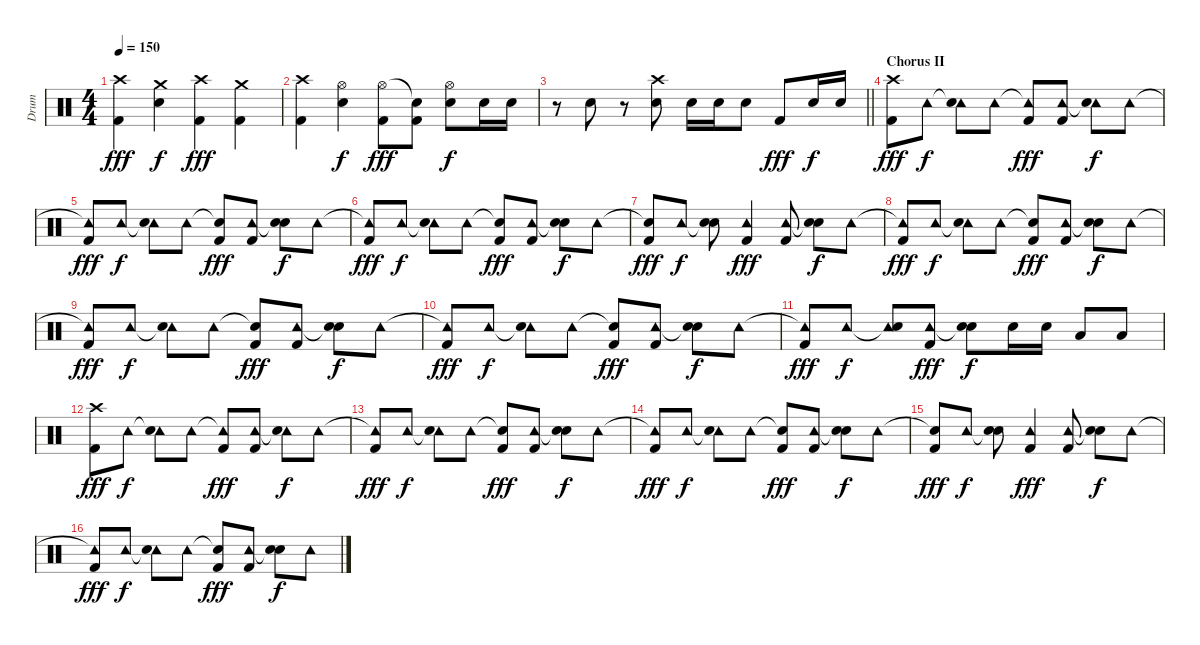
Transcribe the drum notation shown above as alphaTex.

\track ("Drum" "Drum") {instrument percussion}
\staff {score}
\articulation defaults
\ts (4 4)
\tempo 150
\clef neutral
\ks c
("Crash high (hit)" "Kick (hit) 2").4{dy fff} ("Crash medium (hit)" "Snare (hit) 2").4{dy f} ("Crash high (hit)" "Kick (hit) 2").4{dy fff} ("Crash medium (hit)" "Kick (hit) 2").4 |
("Crash high (hit)" "Kick (hit) 2").4 ("Hi-Hat (open)" "Snare (hit) 2").4{dy f} ("Hi-Hat (open)" "Kick (hit) 2").8{dy fff} ("Snare (hit)"{t} "Kick (hit) 2").8 ("Hi-Hat (open)" "Snare (hit) 2").8{dy f} "Snare (hit) 2".16 "Snare (hit) 2".16 |
\barLineRight lightlight
r.8 "Snare (hit) 2".8 r.8 ("Crash high (hit)" "Snare (hit) 2").8 "Snare (hit) 2".16 "Snare (hit) 2".16 "Snare (hit) 2".8 "Kick (hit) 2".8{dy fff} "Snare (hit) 2".16{dy f} "Snare (hit) 2".16 |
\section ("" "Chorus II")
("Crash high (hit)" "Kick (hit) 2").8{dy fff} "Tambourine (hit)".8{dy f} ("Tambourine (hit)"{t} "Snare (hit) 2").8 "Tambourine (hit)".8 ("Tambourine (hit)"{t} "Kick (hit) 2").8{dy fff} ("Tambourine (hit)" "Kick (hit) 2").8 ("Tambourine (hit)"{t} "Snare (hit) 2").8{dy f} "Tambourine (hit)".8 |
("Tambourine (hit)"{t} "Kick (hit) 2").8{dy fff} "Tambourine (hit)".8{dy f} ("Tambourine (hit)"{t} "Snare (hit) 2").8 "Tambourine (hit)".8 ("Snare (hit)"{t} "Kick (hit) 2").8{dy fff} ("Tambourine (hit)" "Kick (hit) 2").8 ("Snare (hit)"{t} "Snare (hit) 2").8{dy f} "Tambourine (hit)".8 |
("Tambourine (hit)"{t} "Kick (hit) 2").8{dy fff} "Tambourine (hit)".8{dy f} ("Tambourine (hit)"{t} "Snare (hit) 2").8 "Tambourine (hit)".8 ("Snare (hit)"{t} "Kick (hit) 2").8{dy fff} ("Tambourine (hit)" "Kick (hit) 2").8 ("Snare (hit)"{t} "Snare (hit) 2").8{dy f} "Tambourine (hit)".8 |
("Snare (hit)"{t} "Kick (hit) 2").8{dy fff} "Tambourine (hit)".8{dy f} ("Snare (hit)"{t} "Snare (hit) 2").8 ("Tambourine (hit)" "Kick (hit) 2").4{dy fff} ("Tambourine (hit)" "Kick (hit) 2").8 ("Snare (hit)"{t} "Snare (hit) 2").8{dy f} "Tambourine (hit)".8 |
("Tambourine (hit)"{t} "Kick (hit) 2").8{dy fff} "Tambourine (hit)".8{dy f} ("Tambourine (hit)"{t} "Snare (hit) 2").8 "Tambourine (hit)".8 ("Snare (hit)"{t} "Kick (hit) 2").8{dy fff} ("Tambourine (hit)" "Kick (hit) 2").8 ("Snare (hit)"{t} "Snare (hit) 2").8{dy f} "Tambourine (hit)".8 |
("Tambourine (hit)"{t} "Kick (hit) 2").8{dy fff} "Tambourine (hit)".8{dy f} ("Tambourine (hit)"{t} "Snare (hit) 2").8 "Tambourine (hit)".8 ("Snare (hit)"{t} "Kick (hit) 2").8{dy fff} ("Tambourine (hit)" "Kick (hit) 2").8 ("Snare (hit)"{t} "Snare (hit) 2").8{dy f} "Tambourine (hit)".8 |
("Tambourine (hit)"{t} "Kick (hit) 2").8{dy fff} "Tambourine (hit)".8{dy f} ("Tambourine (hit)"{t} "Snare (hit) 2").8 "Tambourine (hit)".8 ("Snare (hit)"{t} "Kick (hit) 2").8{dy fff} ("Tambourine (hit)" "Kick (hit) 2").8 ("Snare (hit)"{t} "Snare (hit) 2").8{dy f} "Tambourine (hit)".8 |
("Tambourine (hit)"{t} "Kick (hit) 2").8{dy fff} "Tambourine (hit)".8{dy f} ("Tambourine (hit)"{t} "Snare (hit) 2").8 ("Tambourine (hit)" "Kick (hit) 2").8{dy fff} ("Snare (hit)"{t} "Snare (hit) 2").8{dy f} "Snare (hit) 2".16 "Snare (hit) 2".16 "Low Tom (hit)".8 "Low Tom (hit)".8 |
("Crash high (hit)" "Kick (hit) 2").8{dy fff} "Tambourine (hit)".8{dy f} ("Tambourine (hit)"{t} "Snare (hit) 2").8 "Tambourine (hit)".8 ("Tambourine (hit)"{t} "Kick (hit) 2").8{dy fff} ("Tambourine (hit)" "Kick (hit) 2").8 ("Tambourine (hit)"{t} "Snare (hit) 2").8{dy f} "Tambourine (hit)".8 |
("Tambourine (hit)"{t} "Kick (hit) 2").8{dy fff} "Tambourine (hit)".8{dy f} ("Tambourine (hit)"{t} "Snare (hit) 2").8 "Tambourine (hit)".8 ("Snare (hit)"{t} "Kick (hit) 2").8{dy fff} ("Tambourine (hit)" "Kick (hit) 2").8 ("Snare (hit)"{t} "Snare (hit) 2").8{dy f} "Tambourine (hit)".8 |
("Tambourine (hit)"{t} "Kick (hit) 2").8{dy fff} "Tambourine (hit)".8{dy f} ("Tambourine (hit)"{t} "Snare (hit) 2").8 "Tambourine (hit)".8 ("Snare (hit)"{t} "Kick (hit) 2").8{dy fff} ("Tambourine (hit)" "Kick (hit) 2").8 ("Snare (hit)"{t} "Snare (hit) 2").8{dy f} "Tambourine (hit)".8 |
("Snare (hit)"{t} "Kick (hit) 2").8{dy fff} "Tambourine (hit)".8{dy f} ("Snare (hit)"{t} "Snare (hit) 2").8 ("Tambourine (hit)" "Kick (hit) 2").4{dy fff} ("Tambourine (hit)" "Kick (hit) 2").8 ("Snare (hit)"{t} "Snare (hit) 2").8{dy f} "Tambourine (hit)".8 |
("Tambourine (hit)"{t} "Kick (hit) 2").8{dy fff} "Tambourine (hit)".8{dy f} ("Tambourine (hit)"{t} "Snare (hit) 2").8 "Tambourine (hit)".8 ("Snare (hit)"{t} "Kick (hit) 2").8{dy fff} ("Tambourine (hit)" "Kick (hit) 2").8 ("Snare (hit)"{t} "Snare (hit) 2").8{dy f} "Tambourine (hit)".8
